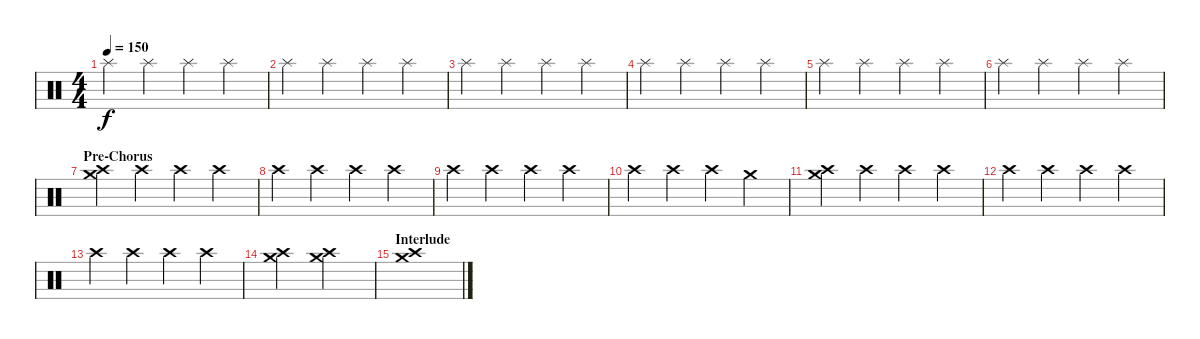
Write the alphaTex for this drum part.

\track "" {instrument percussion}
\staff {score}
\articulation defaults
\ts (4 4)
\tempo 150
\clef neutral
\ks c "Splash (hit)".4{dy f} "Splash (hit)".4 "Splash (hit)".4 "Splash (hit)".4
|
"Splash (hit)".4 "Splash (hit)".4 "Splash (hit)".4 "Splash (hit)".4 |
"Splash (hit)".4 "Splash (hit)".4 "Splash (hit)".4 "Splash (hit)".4 |
"Splash (hit)".4 "Splash (hit)".4 "Splash (hit)".4 "Splash (hit)".4 |
"Splash (hit)".4 "Splash (hit)".4 "Splash (hit)".4 "Splash (hit)".4 |
"Splash (hit)".4 "Splash (hit)".4 "Splash (hit)".4 "Splash (hit)".4 |
\section ("" "Pre-Chorus")
("Crash medium (hit)" "Crash high (hit)").4 "Crash high (hit)".4 "Crash high (hit)".4 "Crash high (hit)".4 |
"Crash high (hit)".4 "Crash high (hit)".4 "Crash high (hit)".4 "Crash high (hit)".4 |
"Crash high (hit)".4 "Crash high (hit)".4 "Crash high (hit)".4 "Crash high (hit)".4 |
"Crash high (hit)".4 "Crash high (hit)".4 "Crash high (hit)".4 "Crash medium (hit)".4 |
("Crash medium (hit)" "Crash high (hit)").4 "Crash high (hit)".4 "Crash high (hit)".4 "Crash high (hit)".4 |
"Crash high (hit)".4 "Crash high (hit)".4 "Crash high (hit)".4 "Crash high (hit)".4 |
"Crash high (hit)".4 "Crash high (hit)".4 "Crash high (hit)".4 "Crash high (hit)".4 |
("Crash medium (hit)" "Crash high (hit)").2 ("Crash medium (hit)" "Crash high (hit)").2 |
\section ("" "Interlude")
("Crash medium (hit)" "Crash high (hit)").1
